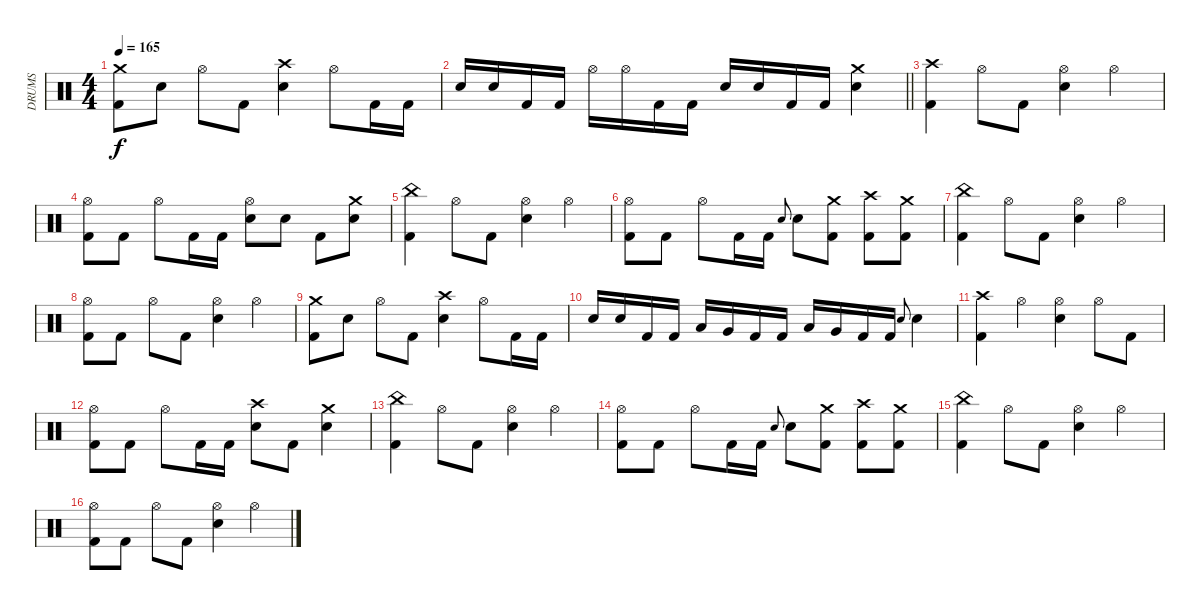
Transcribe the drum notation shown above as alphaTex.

\track ("DRUMS" "DRUMS") {instrument percussion}
\staff {score}
\articulation defaults
\ts (4 4)
\tempo 165
\clef neutral
\ks c
("Crash medium (hit)" "Kick (hit) 2").8{dy f} "Snare (hit) 2".8 "Hi-Hat (open)".8 "Kick (hit) 2".8 ("Crash high (hit)" "Snare (hit) 2").4 "Hi-Hat (open)".8 "Kick (hit) 2".16 "Kick (hit) 2".16 |
\barLineRight lightlight "Snare (hit) 2".16 "Snare (hit) 2".16 "Kick (hit) 2".16 "Kick (hit) 2".16 "Hi-Hat (open)".16 "Hi-Hat (open)".16 "Kick (hit) 2".16 "Kick (hit) 2".16 "Snare (hit) 2".16 "Snare (hit) 2".16 "Kick (hit) 2".16 "Kick (hit) 2".16
("Crash medium (hit)" "Snare (hit) 2").4 |
("Crash high (hit)" "Kick (hit) 2").4 "Hi-Hat (open)".8 "Kick (hit) 2".8 ("Hi-Hat (open)" "Snare (hit) 2").4 "Hi-Hat (open)".4 |
("Hi-Hat (open)" "Kick (hit) 2").8 "Kick (hit) 2".8 "Hi-Hat (open)".8 "Kick (hit) 2".16 "Kick (hit) 2".16 ("Hi-Hat (open)" "Snare (hit) 2").8 "Snare (hit) 2".8 "Kick (hit) 2".8 ("Crash medium (hit)" "Snare (hit) 2").8 |
("China (hit)" "Kick (hit) 2").4 "Hi-Hat (open)".8 "Kick (hit) 2".8 ("Hi-Hat (open)" "Snare (hit) 2").4 "Hi-Hat (open)".4 |
("Hi-Hat (open)" "Kick (hit) 2").8 "Kick (hit) 2".8 "Hi-Hat (open)".8 "Kick (hit) 2".16 "Kick (hit) 2".16 "Snare (hit) 2".8{gr onbeat} "Snare (hit) 2".8 ("Crash medium (hit)" "Kick (hit) 2").8 ("Crash high (hit)" "Kick (hit) 2").8 ("Crash medium (hit)" "Kick (hit) 2").8 |
("China (hit)" "Kick (hit) 2").4 "Hi-Hat (open)".8 "Kick (hit) 2".8 ("Hi-Hat (open)" "Snare (hit) 2").4 "Hi-Hat (open)".4 |
("Hi-Hat (open)" "Kick (hit) 2").8 "Kick (hit) 2".8 "Hi-Hat (open)".8 "Kick (hit) 2".8 ("Hi-Hat (open)" "Snare (hit) 2").4 "Hi-Hat (open)".4 |
("Crash medium (hit)" "Kick (hit) 2").8 "Snare (hit) 2".8 "Hi-Hat (open)".8 "Kick (hit) 2".8 ("Crash high (hit)" "Snare (hit) 2").4 "Hi-Hat (open)".8 "Kick (hit) 2".16 "Kick (hit) 2".16 |
"Snare (hit) 2".16 "Snare (hit) 2".16 "Kick (hit) 2".16 "Kick (hit) 2".16 "Low Tom (hit)".16 "Very Low Tom (hit)".16 "Kick (hit) 2".16 "Kick (hit) 2".16 "Low Tom (hit)".16 "Very Low Tom (hit)".16 "Kick (hit) 2".16 "Kick (hit) 2".16 "Snare (hit) 2".8{gr onbeat} "Snare (hit) 2".4 |
("Crash high (hit)" "Kick (hit) 2").4 "Hi-Hat (open)".4 ("Hi-Hat (open)" "Snare (hit) 2").4 "Hi-Hat (open)".8 "Kick (hit) 2".8 |
("Hi-Hat (open)" "Kick (hit) 2").8 "Kick (hit) 2".8 "Hi-Hat (open)".8 "Kick (hit) 2".16 "Kick (hit) 2".16 ("Crash high (hit)" "Snare (hit) 2").8 "Kick (hit) 2".8 ("Crash medium (hit)" "Snare (hit) 2").4 |
("China (hit)" "Kick (hit) 2").4 "Hi-Hat (open)".8 "Kick (hit) 2".8 ("Hi-Hat (open)" "Snare (hit) 2").4 "Hi-Hat (open)".4 |
("Hi-Hat (open)" "Kick (hit) 2").8 "Kick (hit) 2".8 "Hi-Hat (open)".8 "Kick (hit) 2".16 "Kick (hit) 2".16 "Snare (hit) 2".8{gr onbeat} "Snare (hit) 2".8 ("Crash medium (hit)" "Kick (hit) 2").8 ("Crash high (hit)" "Kick (hit) 2").8 ("Crash medium (hit)" "Kick (hit) 2").8 |
("China (hit)" "Kick (hit) 2").4 "Hi-Hat (open)".8 "Kick (hit) 2".8 ("Hi-Hat (open)" "Snare (hit) 2").4 "Hi-Hat (open)".4 |
("Hi-Hat (open)" "Kick (hit) 2").8 "Kick (hit) 2".8 "Hi-Hat (open)".8 "Kick (hit) 2".8 ("Hi-Hat (open)" "Snare (hit) 2").4 "Hi-Hat (open)".4
